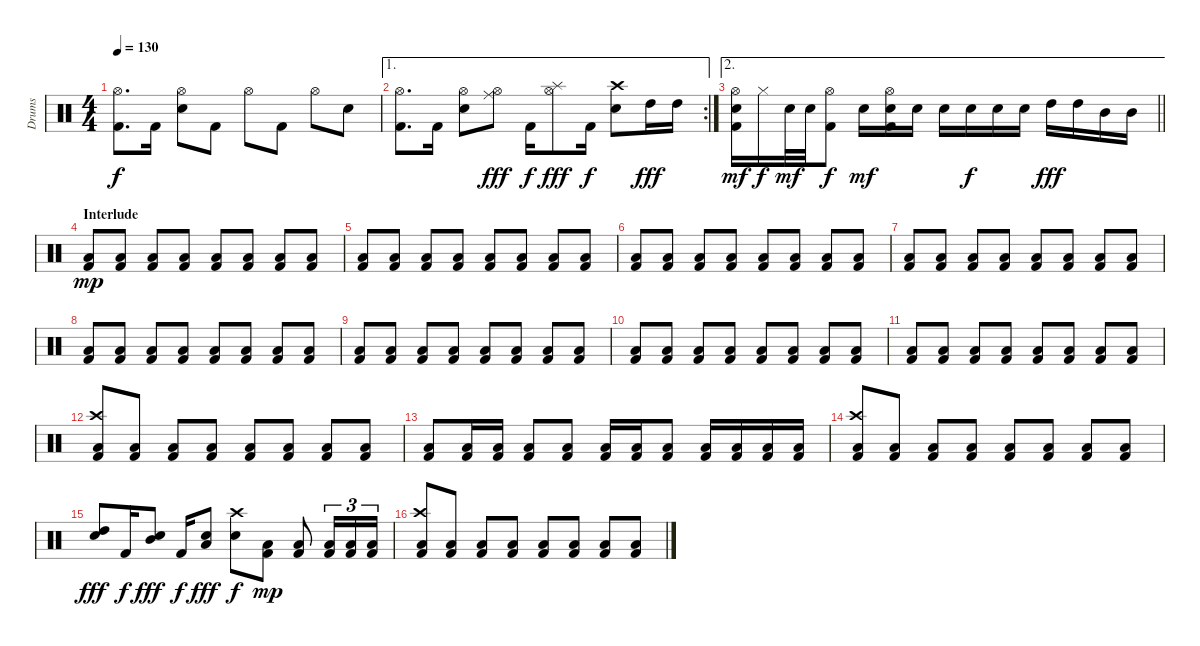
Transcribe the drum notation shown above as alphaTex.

\track ("Drums" "Drums") {instrument percussion}
\staff {score}
\articulation defaults
\ts (4 4)
\tempo 130
\clef neutral
\ks c
("Hi-Hat (open)" "Kick (hit) 2").8{d dy f} "Kick (hit) 2".16 ("Snare (hit) 2" "Hi-Hat (open)").8 "Kick (hit) 2".8 "Hi-Hat (open)".8 "Kick (hit) 2".8 "Hi-Hat (open)".8 "Snare (hit) 2".8 |
\ae 1
\rc 2
("Hi-Hat (open)" "Kick (hit) 2").8{d} "Kick (hit) 2".16 ("Snare (hit) 2" "Hi-Hat (open)").8 ("Ride (middle)" "Hi-Hat (open)").8{dy fff} "Kick (hit) 2".16{dy f} ("Splash (hit)" "Hi-Hat (open)").8{dy fff} "Kick (hit) 2".16{dy f} ("Crash high (hit)" "Snare (hit) 2").8 "High Tom (hit)".16{dy fff} "High Tom (hit)".16 |
\ae 2
\barLineRight lightlight
("Hi-Hat (open)" "Snare (hit) 2" "Kick (hit) 2").16{dy mf} "Hi-Hat (closed)".16{dy f} "Snare (hit) 2".32{dy mf} "Snare (hit) 2".32 ("Hi-Hat (open)" "Kick (hit) 2").8{dy f} "Snare (hit) 2".16{dy mf} ("Hi-Hat (open)" "Snare (hit) 2" "Kick (hit) 2").16 "Snare (hit) 2".16 "Snare (hit) 2".16 "Snare (hit) 2".16{dy f} "Snare (hit) 2".16 "Snare (hit) 2".16 "High Tom (hit)".16{dy fff} "High Tom (hit)".16 "Mid Tom (hit)".16 "Mid Tom (hit)".16 |
\section ("" "Interlude")
("Low Tom (hit)" "Kick (hit) 2").8{dy mp} ("Low Tom (hit)" "Kick (hit) 2").8 ("Low Tom (hit)" "Kick (hit) 2").8 ("Low Tom (hit)" "Kick (hit) 2").8 ("Low Tom (hit)" "Kick (hit) 2").8 ("Low Tom (hit)" "Kick (hit) 2").8 ("Low Tom (hit)" "Kick (hit) 2").8 ("Low Tom (hit)" "Kick (hit) 2").8 |
("Low Tom (hit)" "Kick (hit) 2").8 ("Low Tom (hit)" "Kick (hit) 2").8 ("Low Tom (hit)" "Kick (hit) 2").8 ("Low Tom (hit)" "Kick (hit) 2").8 ("Low Tom (hit)" "Kick (hit) 2").8 ("Low Tom (hit)" "Kick (hit) 2").8 ("Low Tom (hit)" "Kick (hit) 2").8 ("Low Tom (hit)" "Kick (hit) 2").8 |
("Low Tom (hit)" "Kick (hit) 2").8 ("Low Tom (hit)" "Kick (hit) 2").8 ("Low Tom (hit)" "Kick (hit) 2").8 ("Low Tom (hit)" "Kick (hit) 2").8 ("Low Tom (hit)" "Kick (hit) 2").8 ("Low Tom (hit)" "Kick (hit) 2").8 ("Low Tom (hit)" "Kick (hit) 2").8 ("Low Tom (hit)" "Kick (hit) 2").8 |
("Low Tom (hit)" "Kick (hit) 2").8 ("Low Tom (hit)" "Kick (hit) 2").8 ("Low Tom (hit)" "Kick (hit) 2").8 ("Low Tom (hit)" "Kick (hit) 2").8 ("Low Tom (hit)" "Kick (hit) 2").8 ("Low Tom (hit)" "Kick (hit) 2").8 ("Low Tom (hit)" "Kick (hit) 2").8 ("Low Tom (hit)" "Kick (hit) 2").8 |
("Low Tom (hit)" "Kick (hit) 2").8 ("Low Tom (hit)" "Kick (hit) 2").8 ("Low Tom (hit)" "Kick (hit) 2").8 ("Low Tom (hit)" "Kick (hit) 2").8 ("Low Tom (hit)" "Kick (hit) 2").8 ("Low Tom (hit)" "Kick (hit) 2").8 ("Low Tom (hit)" "Kick (hit) 2").8 ("Low Tom (hit)" "Kick (hit) 2").8 |
("Low Tom (hit)" "Kick (hit) 2").8 ("Low Tom (hit)" "Kick (hit) 2").8 ("Low Tom (hit)" "Kick (hit) 2").8 ("Low Tom (hit)" "Kick (hit) 2").8 ("Low Tom (hit)" "Kick (hit) 2").8 ("Low Tom (hit)" "Kick (hit) 2").8 ("Low Tom (hit)" "Kick (hit) 2").8 ("Low Tom (hit)" "Kick (hit) 2").8 |
("Low Tom (hit)" "Kick (hit) 2").8 ("Low Tom (hit)" "Kick (hit) 2").8 ("Low Tom (hit)" "Kick (hit) 2").8 ("Low Tom (hit)" "Kick (hit) 2").8 ("Low Tom (hit)" "Kick (hit) 2").8 ("Low Tom (hit)" "Kick (hit) 2").8 ("Low Tom (hit)" "Kick (hit) 2").8 ("Low Tom (hit)" "Kick (hit) 2").8 |
("Low Tom (hit)" "Kick (hit) 2").8 ("Low Tom (hit)" "Kick (hit) 2").8 ("Low Tom (hit)" "Kick (hit) 2").8 ("Low Tom (hit)" "Kick (hit) 2").8 ("Low Tom (hit)" "Kick (hit) 2").8 ("Low Tom (hit)" "Kick (hit) 2").8 ("Low Tom (hit)" "Kick (hit) 2").8 ("Low Tom (hit)" "Kick (hit) 2").8 |
("Crash high (hit)" "Low Tom (hit)" "Kick (hit) 2").8 ("Low Tom (hit)" "Kick (hit) 2").8 ("Low Tom (hit)" "Kick (hit) 2").8 ("Low Tom (hit)" "Kick (hit) 2").8 ("Low Tom (hit)" "Kick (hit) 2").8 ("Low Tom (hit)" "Kick (hit) 2").8 ("Low Tom (hit)" "Kick (hit) 2").8 ("Low Tom (hit)" "Kick (hit) 2").8 |
("Low Tom (hit)" "Kick (hit) 2").8 ("Low Tom (hit)" "Kick (hit) 2").16 ("Low Tom (hit)" "Kick (hit) 2").16 ("Low Tom (hit)" "Kick (hit) 2").8 ("Low Tom (hit)" "Kick (hit) 2").8 ("Low Tom (hit)" "Kick (hit) 2").16 ("Low Tom (hit)" "Kick (hit) 2").16 ("Low Tom (hit)" "Kick (hit) 2").8 ("Low Tom (hit)" "Kick (hit) 2").16 ("Low Tom (hit)" "Kick (hit) 2").16 ("Low Tom (hit)" "Kick (hit) 2").16 ("Low Tom (hit)" "Kick (hit) 2").16 |
("Crash high (hit)" "Low Tom (hit)" "Kick (hit) 2").8 ("Low Tom (hit)" "Kick (hit) 2").8 ("Low Tom (hit)" "Kick (hit) 2").8 ("Low Tom (hit)" "Kick (hit) 2").8 ("Low Tom (hit)" "Kick (hit) 2").8 ("Low Tom (hit)" "Kick (hit) 2").8 ("Low Tom (hit)" "Kick (hit) 2").8 ("Low Tom (hit)" "Kick (hit) 2").8 |
("High Tom (hit)" "Electric Snare (hit)").8{dy fff} "Kick (hit) 2".16{dy f} ("Mid Tom (hit)" "Electric Snare (hit)").8{dy fff} "Kick (hit) 2".16{dy f} ("Low Tom (hit)" "Electric Snare (hit)").8{dy fff} ("Crash high (hit)" "Electric Snare (hit)").8{dy f} ("Low Tom (hit)" "Kick (hit) 2").8{dy mp} ("Low Tom (hit)" "Kick (hit) 2").8 ("Low Tom (hit)" "Kick (hit) 2").16{tu (3 2)} ("Low Tom (hit)" "Kick (hit) 2").16{tu (3 2)} ("Low Tom (hit)" "Kick (hit) 2").16{tu (3 2)} |
("Crash high (hit)" "Low Tom (hit)" "Kick (hit) 2").8 ("Low Tom (hit)" "Kick (hit) 2").8 ("Low Tom (hit)" "Kick (hit) 2").8 ("Low Tom (hit)" "Kick (hit) 2").8 ("Low Tom (hit)" "Kick (hit) 2").8 ("Low Tom (hit)" "Kick (hit) 2").8 ("Low Tom (hit)" "Kick (hit) 2").8 ("Low Tom (hit)" "Kick (hit) 2").8
